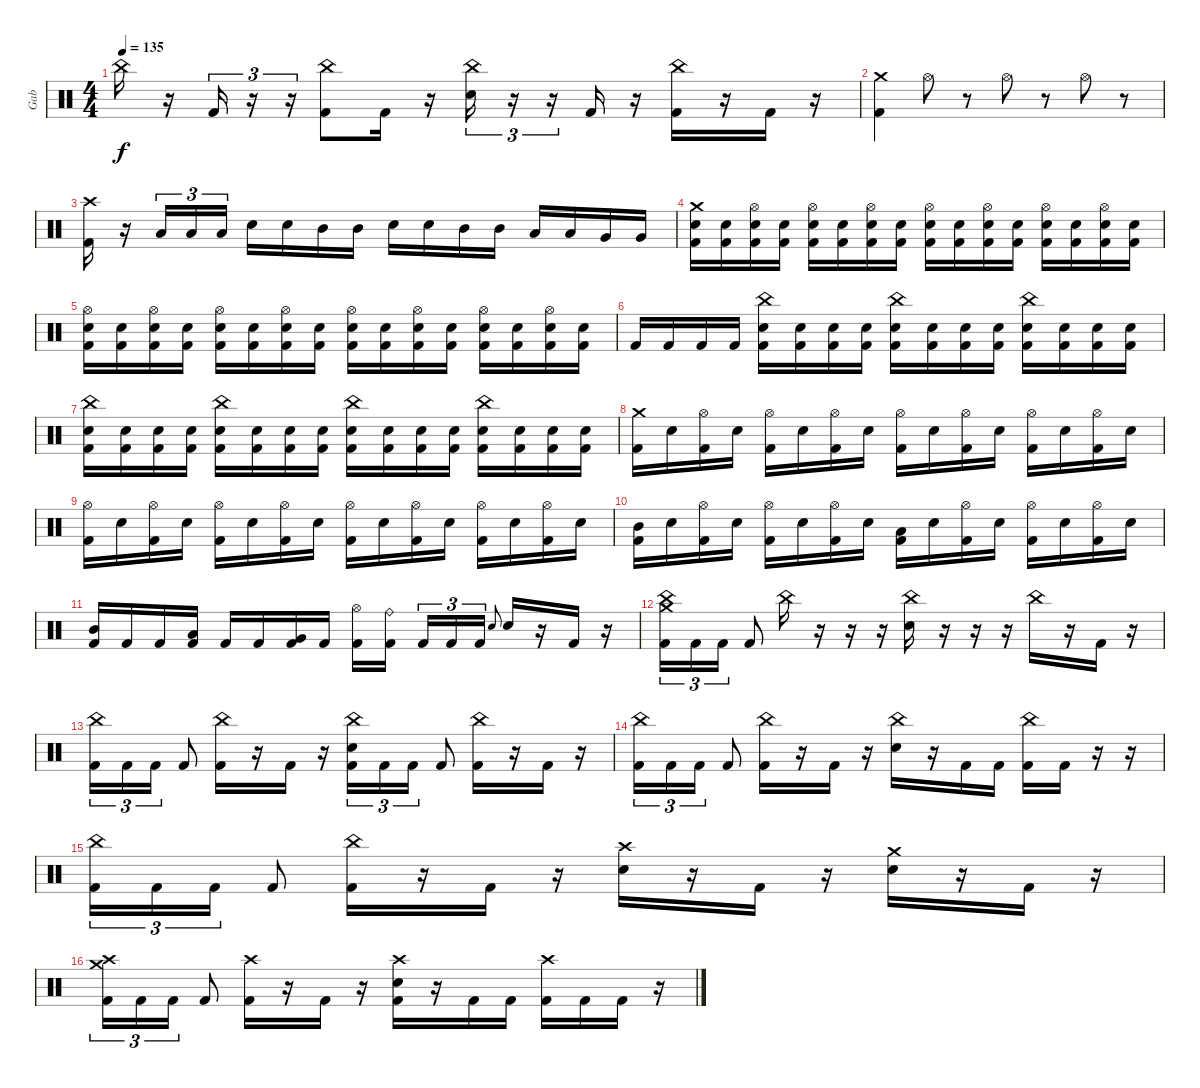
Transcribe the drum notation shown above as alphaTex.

\track ("Gab" "Gab") {instrument percussion}
\staff {score}
\articulation defaults
\ts (4 4)
\tempo 135
\clef neutral
\ks c "China (hit)".16{dy f}
r.16 "Kick (hit) 2".16{tu (3 2)} r.16{tu (3 2)} r.16{tu (3 2)} ("China (hit)" "Kick (hit) 2").8 "Kick (hit) 2".16 r.16 ("China (hit)" "Electric Snare (hit)").16{tu (3 2)} r.16{tu (3 2)} r.16{tu (3 2)} "Kick (hit) 2".16 r.16 ("China (hit)" "Kick (hit) 2").16 r.16 "Kick (hit) 2".16 r.16 |
("Crash medium (hit)" "Kick (hit) 2").4 "Hi-Hat (open)".8 r.8 "Hi-Hat (open)".8 r.8 "Hi-Hat (open)".8 r.8 |
("Crash high (hit)" "Kick (hit) 2").16 r.16 "Low Tom (hit)".16{tu (3 2)} "Low Tom (hit)".16{tu (3 2)} "Low Tom (hit)".16{tu (3 2)} "Electric Snare (hit)".16 "Electric Snare (hit)".16 "Mid Tom (hit)".16 "Mid Tom (hit)".16 "Electric Snare (hit)".16 "Electric Snare (hit)".16 "Mid Tom (hit)".16 "Mid Tom (hit)".16 "Low Tom (hit)".16 "Low Tom (hit)".16 "Very Low Tom (hit)".16 "Very Low Tom (hit)".16 |
("Crash medium (hit)" "Electric Snare (hit)" "Kick (hit) 2").16 ("Electric Snare (hit)" "Kick (hit) 2").16 ("Hi-Hat (open)" "Electric Snare (hit)" "Kick (hit) 2").16 ("Electric Snare (hit)" "Kick (hit) 2").16 ("Hi-Hat (open)" "Electric Snare (hit)" "Kick (hit) 2").16 ("Electric Snare (hit)" "Kick (hit) 2").16 ("Hi-Hat (open)" "Electric Snare (hit)" "Kick (hit) 2").16 ("Electric Snare (hit)" "Kick (hit) 2").16 ("Hi-Hat (open)" "Electric Snare (hit)" "Kick (hit) 2").16 ("Electric Snare (hit)" "Kick (hit) 2").16 ("Hi-Hat (open)" "Electric Snare (hit)" "Kick (hit) 2").16 ("Electric Snare (hit)" "Kick (hit) 2").16 ("Hi-Hat (open)" "Electric Snare (hit)" "Kick (hit) 2").16 ("Electric Snare (hit)" "Kick (hit) 2").16 ("Hi-Hat (open)" "Electric Snare (hit)" "Kick (hit) 2").16 ("Electric Snare (hit)" "Kick (hit) 2").16 |
("Hi-Hat (open)" "Electric Snare (hit)" "Kick (hit) 2").16 ("Electric Snare (hit)" "Kick (hit) 2").16 ("Hi-Hat (open)" "Electric Snare (hit)" "Kick (hit) 2").16 ("Electric Snare (hit)" "Kick (hit) 2").16 ("Hi-Hat (open)" "Electric Snare (hit)" "Kick (hit) 2").16 ("Electric Snare (hit)" "Kick (hit) 2").16 ("Hi-Hat (open)" "Electric Snare (hit)" "Kick (hit) 2").16 ("Electric Snare (hit)" "Kick (hit) 2").16 ("Hi-Hat (open)" "Electric Snare (hit)" "Kick (hit) 2").16 ("Electric Snare (hit)" "Kick (hit) 2").16 ("Hi-Hat (open)" "Electric Snare (hit)" "Kick (hit) 2").16 ("Electric Snare (hit)" "Kick (hit) 2").16 ("Hi-Hat (open)" "Electric Snare (hit)" "Kick (hit) 2").16 ("Electric Snare (hit)" "Kick (hit) 2").16 ("Hi-Hat (open)" "Electric Snare (hit)" "Kick (hit) 2").16 ("Electric Snare (hit)" "Kick (hit) 2").16 |
"Kick (hit) 2".16 "Kick (hit) 2".16 "Kick (hit) 2".16 "Kick (hit) 2".16 ("China (hit)" "Electric Snare (hit)" "Kick (hit) 2").16 ("Electric Snare (hit)" "Kick (hit) 2").16 ("Electric Snare (hit)" "Kick (hit) 2").16 ("Electric Snare (hit)" "Kick (hit) 2").16 ("China (hit)" "Electric Snare (hit)" "Kick (hit) 2").16 ("Electric Snare (hit)" "Kick (hit) 2").16 ("Electric Snare (hit)" "Kick (hit) 2").16 ("Electric Snare (hit)" "Kick (hit) 2").16 ("China (hit)" "Electric Snare (hit)" "Kick (hit) 2").16 ("Electric Snare (hit)" "Kick (hit) 2").16 ("Electric Snare (hit)" "Kick (hit) 2").16 ("Electric Snare (hit)" "Kick (hit) 2").16 |
("China (hit)" "Electric Snare (hit)" "Kick (hit) 2").16 ("Electric Snare (hit)" "Kick (hit) 2").16 ("Electric Snare (hit)" "Kick (hit) 2").16 ("Electric Snare (hit)" "Kick (hit) 2").16 ("China (hit)" "Electric Snare (hit)" "Kick (hit) 2").16 ("Electric Snare (hit)" "Kick (hit) 2").16 ("Electric Snare (hit)" "Kick (hit) 2").16 ("Electric Snare (hit)" "Kick (hit) 2").16 ("China (hit)" "Electric Snare (hit)" "Kick (hit) 2").16 ("Electric Snare (hit)" "Kick (hit) 2").16 ("Electric Snare (hit)" "Kick (hit) 2").16 ("Electric Snare (hit)" "Kick (hit) 2").16 ("China (hit)" "Electric Snare (hit)" "Kick (hit) 2").16 ("Electric Snare (hit)" "Kick (hit) 2").16 ("Electric Snare (hit)" "Kick (hit) 2").16 ("Electric Snare (hit)" "Kick (hit) 2").16 |
("Crash medium (hit)" "Kick (hit) 2").16 "Electric Snare (hit)".16 ("Hi-Hat (open)" "Kick (hit) 2").16 "Electric Snare (hit)".16 ("Hi-Hat (open)" "Kick (hit) 2").16 "Electric Snare (hit)".16 ("Hi-Hat (open)" "Kick (hit) 2").16 "Electric Snare (hit)".16 ("Hi-Hat (open)" "Kick (hit) 2").16 "Electric Snare (hit)".16 ("Hi-Hat (open)" "Kick (hit) 2").16 "Electric Snare (hit)".16 ("Hi-Hat (open)" "Kick (hit) 2").16 "Electric Snare (hit)".16 ("Hi-Hat (open)" "Kick (hit) 2").16 "Electric Snare (hit)".16 |
("Hi-Hat (open)" "Kick (hit) 2").16 "Electric Snare (hit)".16 ("Hi-Hat (open)" "Kick (hit) 2").16 "Electric Snare (hit)".16 ("Hi-Hat (open)" "Kick (hit) 2").16 "Electric Snare (hit)".16 ("Hi-Hat (open)" "Kick (hit) 2").16 "Electric Snare (hit)".16 ("Hi-Hat (open)" "Kick (hit) 2").16 "Electric Snare (hit)".16 ("Hi-Hat (open)" "Kick (hit) 2").16 "Electric Snare (hit)".16 ("Hi-Hat (open)" "Kick (hit) 2").16 "Electric Snare (hit)".16 ("Hi-Hat (open)" "Kick (hit) 2").16 "Electric Snare (hit)".16 |
("Mid Tom (hit)" "Kick (hit) 2").16 "Electric Snare (hit)".16 ("Hi-Hat (open)" "Kick (hit) 2").16 "Electric Snare (hit)".16 ("Hi-Hat (open)" "Kick (hit) 2").16 "Electric Snare (hit)".16 ("Hi-Hat (open)" "Kick (hit) 2").16 "Electric Snare (hit)".16 ("Low Tom (hit)" "Kick (hit) 2").16 "Electric Snare (hit)".16 ("Hi-Hat (open)" "Kick (hit) 2").16 "Electric Snare (hit)".16 ("Hi-Hat (open)" "Kick (hit) 2").16 "Electric Snare (hit)".16 ("Hi-Hat (open)" "Kick (hit) 2").16 "Electric Snare (hit)".16 |
("Mid Tom (hit)" "Kick (hit) 2").16 "Kick (hit) 2".16 "Kick (hit) 2".16 ("Low Tom (hit)" "Kick (hit) 2").16 "Kick (hit) 2".16 "Kick (hit) 2".16 ("Very Low Tom (hit)" "Kick (hit) 2").16 "Kick (hit) 2".16 ("Hi-Hat (open)" "Kick (hit) 2").16 ("Ride (bell)" "Kick (hit) 2").16{beam splitsecondary} "Kick (hit) 2".16{tu (3 2)} "Kick (hit) 2".16{tu (3 2)} "Kick (hit) 2".16{tu (3 2)} "Electric Snare (hit)".8{gr onbeat} "Electric Snare (hit)".16 r.16 "Kick (hit) 2".16 r.16 |
("Crash medium (hit)" "China (hit)" "Kick (hit) 2").16{tu (3 2)} "Kick (hit) 2".16{tu (3 2)} "Kick (hit) 2".16{tu (3 2)} "Kick (hit) 2".8 "China (hit)".16 r.16 r.16 r.16 ("China (hit)" "Electric Snare (hit)").16 r.16 r.16 r.16 "China (hit)".16 r.16 "Kick (hit) 2".16 r.16 |
("China (hit)" "Kick (hit) 2").16{tu (3 2)} "Kick (hit) 2".16{tu (3 2)} "Kick (hit) 2".16{tu (3 2)} "Kick (hit) 2".8 ("China (hit)" "Kick (hit) 2").16 r.16 "Kick (hit) 2".16 r.16 ("China (hit)" "Electric Snare (hit)" "Kick (hit) 2").16{tu (3 2)} "Kick (hit) 2".16{tu (3 2)} "Kick (hit) 2".16{tu (3 2)} "Kick (hit) 2".8 ("China (hit)" "Kick (hit) 2").16 r.16 "Kick (hit) 2".16 r.16 |
("China (hit)" "Kick (hit) 2").16{tu (3 2)} "Kick (hit) 2".16{tu (3 2)} "Kick (hit) 2".16{tu (3 2)} "Kick (hit) 2".8 ("China (hit)" "Kick (hit) 2").16 r.16 "Kick (hit) 2".16 r.16 ("China (hit)" "Electric Snare (hit)").16 r.16 "Kick (hit) 2".16 "Kick (hit) 2".16 ("China (hit)" "Kick (hit) 2").16 "Kick (hit) 2".16 r.16 r.16 |
("China (hit)" "Kick (hit) 2").16{tu (3 2)} "Kick (hit) 2".16{tu (3 2)} "Kick (hit) 2".16{tu (3 2)} "Kick (hit) 2".8 ("China (hit)" "Kick (hit) 2").16 r.16 "Kick (hit) 2".16 r.16 ("Crash high (hit)" "Electric Snare (hit)").16 r.16 "Kick (hit) 2".16 r.16 ("Crash medium (hit)" "Electric Snare (hit)").16 r.16 "Kick (hit) 2".16 r.16 |
("Crash medium (hit)" "Crash high (hit)" "Kick (hit) 2").16{tu (3 2)} "Kick (hit) 2".16{tu (3 2)} "Kick (hit) 2".16{tu (3 2)} "Kick (hit) 2".8 ("Crash high (hit)" "Kick (hit) 2").16 r.16 "Kick (hit) 2".16 r.16 ("Crash high (hit)" "Electric Snare (hit)" "Kick (hit) 2").16 r.16 "Kick (hit) 2".16 "Kick (hit) 2".16 ("Crash high (hit)" "Kick (hit) 2").16 "Kick (hit) 2".16 "Kick (hit) 2".16 r.16
